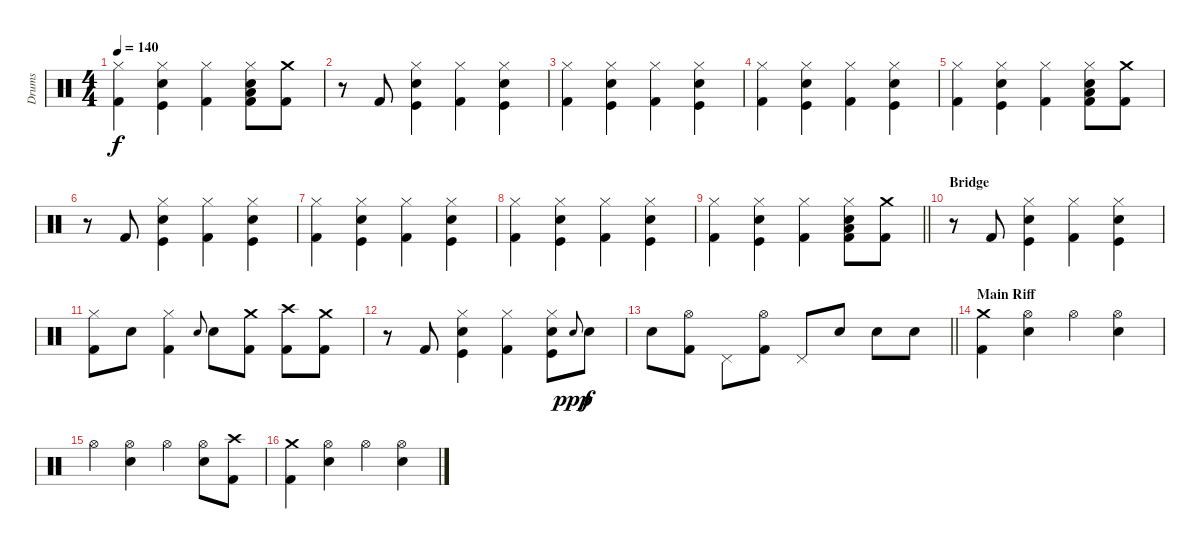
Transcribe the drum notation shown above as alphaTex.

\track ("Drums" "Drums") {instrument percussion}
\staff {score}
\articulation defaults
\ts (4 4)
\tempo 140
\clef neutral
\ks c
("Hi-Hat (closed)" "Kick (hit) 2").4{dy f} ("Hi-Hat (closed)" "Electric Snare (hit)" "Kick (hit)").4 ("Hi-Hat (closed)" "Kick (hit) 2").4 ("Hi-Hat (closed)" "Kick (hit) 2" "Low Floor Tom (hit)" "Electric Snare (hit)").8 ("Crash medium (hit)" "Kick (hit) 2").8 |
r.8 "Kick (hit) 2".8 ("Hi-Hat (closed)" "Electric Snare (hit)" "Kick (hit)").4 ("Hi-Hat (closed)" "Kick (hit) 2").4 ("Hi-Hat (closed)" "Electric Snare (hit)" "Kick (hit)").4 |
("Hi-Hat (closed)" "Kick (hit) 2").4 ("Hi-Hat (closed)" "Electric Snare (hit)" "Kick (hit)").4 ("Hi-Hat (closed)" "Kick (hit) 2").4 ("Hi-Hat (closed)" "Electric Snare (hit)" "Kick (hit)").4 |
("Hi-Hat (closed)" "Kick (hit) 2").4 ("Hi-Hat (closed)" "Electric Snare (hit)" "Kick (hit)").4 ("Hi-Hat (closed)" "Kick (hit) 2").4 ("Hi-Hat (closed)" "Electric Snare (hit)" "Kick (hit)").4 |
("Hi-Hat (closed)" "Kick (hit) 2").4 ("Hi-Hat (closed)" "Electric Snare (hit)" "Kick (hit)").4 ("Hi-Hat (closed)" "Kick (hit) 2").4 ("Hi-Hat (closed)" "Kick (hit) 2" "Low Floor Tom (hit)" "Electric Snare (hit)").8 ("Crash medium (hit)" "Kick (hit) 2").8 |
r.8 "Kick (hit) 2".8 ("Hi-Hat (closed)" "Electric Snare (hit)" "Kick (hit)").4 ("Hi-Hat (closed)" "Kick (hit) 2").4 ("Hi-Hat (closed)" "Electric Snare (hit)" "Kick (hit)").4 |
("Hi-Hat (closed)" "Kick (hit) 2").4 ("Hi-Hat (closed)" "Electric Snare (hit)" "Kick (hit)").4 ("Hi-Hat (closed)" "Kick (hit) 2").4 ("Hi-Hat (closed)" "Electric Snare (hit)" "Kick (hit)").4 |
("Hi-Hat (closed)" "Kick (hit) 2").4 ("Hi-Hat (closed)" "Electric Snare (hit)" "Kick (hit)").4 ("Hi-Hat (closed)" "Kick (hit) 2").4 ("Hi-Hat (closed)" "Electric Snare (hit)" "Kick (hit)").4 |
\barLineRight lightlight
("Hi-Hat (closed)" "Kick (hit) 2").4 ("Hi-Hat (closed)" "Electric Snare (hit)" "Kick (hit)").4 ("Hi-Hat (closed)" "Kick (hit) 2").4 ("Hi-Hat (closed)" "Kick (hit) 2" "Low Floor Tom (hit)" "Electric Snare (hit)").8 ("Crash medium (hit)" "Kick (hit) 2").8 |
\section ("" "Bridge")
r.8 "Kick (hit) 2".8 ("Hi-Hat (closed)" "Electric Snare (hit)" "Kick (hit)").4 ("Hi-Hat (closed)" "Kick (hit) 2").4 ("Hi-Hat (closed)" "Electric Snare (hit)" "Kick (hit)").4 |
("Hi-Hat (closed)" "Kick (hit) 2").8 "Electric Snare (hit)".8 ("Hi-Hat (closed)" "Kick (hit) 2").4 "Electric Snare (hit)".8{gr onbeat} "Electric Snare (hit)".8 ("Crash medium (hit)" "Kick (hit) 2").8 ("Crash high (hit)" "Kick (hit) 2").8 ("Crash medium (hit)" "Kick (hit) 2").8 |
r.8 "Kick (hit) 2".8 ("Hi-Hat (closed)" "Electric Snare (hit)" "Kick (hit)").4 ("Hi-Hat (closed)" "Kick (hit) 2").4 ("Hi-Hat (closed)" "Electric Snare (hit)" "Kick (hit)").8 "Electric Snare (hit)"{h}.8{gr onbeat dy ppp} "Electric Snare (hit)".8{dy f} |
\barLineRight lightlight "Electric Snare (hit)".8
("Hi-Hat (open)" "Kick (hit) 2").8 "Pedal Hi-Hat (hit)".8 ("Hi-Hat (open)" "Kick (hit) 2").8 "Pedal Hi-Hat (hit)".8 "Electric Snare (hit)".8 "Electric Snare (hit)".8 "Electric Snare (hit)".8 |
\section ("" "Main Riff")
("Crash medium (hit)" "Kick (hit) 2").4 ("Hi-Hat (open)" "Electric Snare (hit)").4 "Hi-Hat (open)".4 ("Hi-Hat (open)" "Electric Snare (hit)").4 |
"Hi-Hat (open)".4 ("Hi-Hat (open)" "Electric Snare (hit)").4 "Hi-Hat (open)".4 ("Hi-Hat (open)" "Electric Snare (hit)").8 ("Crash high (hit)" "Kick (hit) 2").8 |
("Crash medium (hit)" "Kick (hit) 2").4 ("Hi-Hat (open)" "Electric Snare (hit)").4 "Hi-Hat (open)".4 ("Hi-Hat (open)" "Electric Snare (hit)").4
